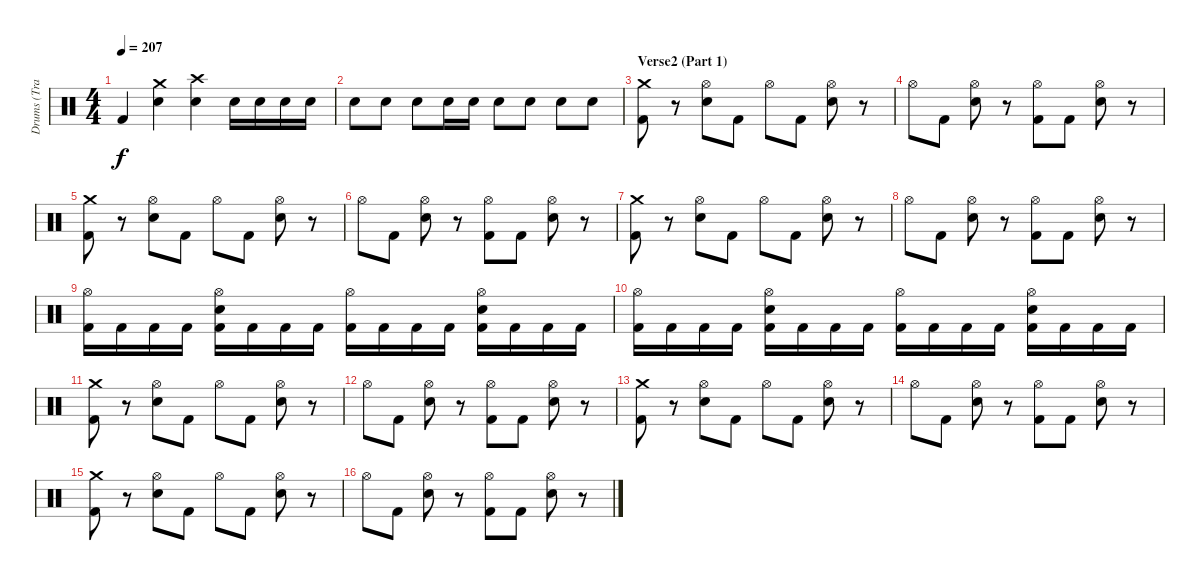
\track ("Drums (Travis)" "Drums (Tra") {instrument percussion}
\staff {score}
\articulation defaults
\ts (4 4)
\tempo 207
\clef neutral
\ks c "Kick (hit) 2".4{dy f}
("Crash medium (hit)" "Snare (hit) 2").4 ("Crash high (hit)" "Snare (hit) 2").4 "Snare (hit) 2".16 "Snare (hit) 2".16 "Snare (hit) 2".16 "Snare (hit) 2".16 |
"Snare (hit) 2".8 "Snare (hit) 2".8 "Snare (hit) 2".8 "Snare (hit) 2".16 "Snare (hit) 2".16 "Snare (hit) 2".8 "Snare (hit) 2".8 "Snare (hit) 2".8 "Snare (hit) 2".8 |
\section ("" "Verse2 (Part 1)")
("Crash medium (hit)" "Kick (hit) 2").8 r.8 ("Hi-Hat (open)" "Snare (hit) 2").8 "Kick (hit) 2".8 "Hi-Hat (open)".8 "Kick (hit) 2".8 ("Hi-Hat (open)" "Snare (hit) 2").8 r.8 |
"Hi-Hat (open)".8 "Kick (hit) 2".8 ("Hi-Hat (open)" "Snare (hit) 2").8 r.8 ("Hi-Hat (open)" "Kick (hit) 2").8 "Kick (hit) 2".8 ("Hi-Hat (open)" "Snare (hit) 2").8 r.8 |
("Crash medium (hit)" "Kick (hit) 2").8 r.8 ("Hi-Hat (open)" "Snare (hit) 2").8 "Kick (hit) 2".8 "Hi-Hat (open)".8 "Kick (hit) 2".8 ("Hi-Hat (open)" "Snare (hit) 2").8 r.8 |
"Hi-Hat (open)".8 "Kick (hit) 2".8 ("Hi-Hat (open)" "Snare (hit) 2").8 r.8 ("Hi-Hat (open)" "Kick (hit) 2").8 "Kick (hit) 2".8 ("Hi-Hat (open)" "Snare (hit) 2").8 r.8 |
("Crash medium (hit)" "Kick (hit) 2").8 r.8 ("Hi-Hat (open)" "Snare (hit) 2").8 "Kick (hit) 2".8 "Hi-Hat (open)".8 "Kick (hit) 2".8 ("Hi-Hat (open)" "Snare (hit) 2").8 r.8 |
"Hi-Hat (open)".8 "Kick (hit) 2".8 ("Hi-Hat (open)" "Snare (hit) 2").8 r.8 ("Hi-Hat (open)" "Kick (hit) 2").8 "Kick (hit) 2".8 ("Hi-Hat (open)" "Snare (hit) 2").8 r.8 |
("Hi-Hat (open)" "Kick (hit) 2").16 "Kick (hit) 2".16 "Kick (hit) 2".16 "Kick (hit) 2".16 ("Hi-Hat (open)" "Snare (hit) 2" "Kick (hit) 2").16 "Kick (hit) 2".16 "Kick (hit) 2".16 "Kick (hit) 2".16 ("Hi-Hat (open)" "Kick (hit) 2").16 "Kick (hit) 2".16 "Kick (hit) 2".16 "Kick (hit) 2".16 ("Hi-Hat (open)" "Snare (hit) 2" "Kick (hit) 2").16 "Kick (hit) 2".16 "Kick (hit) 2".16 "Kick (hit) 2".16 |
("Hi-Hat (open)" "Kick (hit) 2").16 "Kick (hit) 2".16 "Kick (hit) 2".16 "Kick (hit) 2".16 ("Hi-Hat (open)" "Snare (hit) 2" "Kick (hit) 2").16 "Kick (hit) 2".16 "Kick (hit) 2".16 "Kick (hit) 2".16 ("Hi-Hat (open)" "Kick (hit) 2").16 "Kick (hit) 2".16 "Kick (hit) 2".16 "Kick (hit) 2".16 ("Hi-Hat (open)" "Snare (hit) 2" "Kick (hit) 2").16 "Kick (hit) 2".16 "Kick (hit) 2".16 "Kick (hit) 2".16 |
("Crash medium (hit)" "Kick (hit) 2").8 r.8 ("Hi-Hat (open)" "Snare (hit) 2").8 "Kick (hit) 2".8 "Hi-Hat (open)".8 "Kick (hit) 2".8 ("Hi-Hat (open)" "Snare (hit) 2").8 r.8 |
"Hi-Hat (open)".8 "Kick (hit) 2".8 ("Hi-Hat (open)" "Snare (hit) 2").8 r.8 ("Hi-Hat (open)" "Kick (hit) 2").8 "Kick (hit) 2".8 ("Hi-Hat (open)" "Snare (hit) 2").8 r.8 |
("Crash medium (hit)" "Kick (hit) 2").8 r.8 ("Hi-Hat (open)" "Snare (hit) 2").8 "Kick (hit) 2".8 "Hi-Hat (open)".8 "Kick (hit) 2".8 ("Hi-Hat (open)" "Snare (hit) 2").8 r.8 |
"Hi-Hat (open)".8 "Kick (hit) 2".8 ("Hi-Hat (open)" "Snare (hit) 2").8 r.8 ("Hi-Hat (open)" "Kick (hit) 2").8 "Kick (hit) 2".8 ("Hi-Hat (open)" "Snare (hit) 2").8 r.8 |
("Crash medium (hit)" "Kick (hit) 2").8 r.8 ("Hi-Hat (open)" "Snare (hit) 2").8 "Kick (hit) 2".8 "Hi-Hat (open)".8 "Kick (hit) 2".8 ("Hi-Hat (open)" "Snare (hit) 2").8 r.8 |
"Hi-Hat (open)".8 "Kick (hit) 2".8 ("Hi-Hat (open)" "Snare (hit) 2").8 r.8 ("Hi-Hat (open)" "Kick (hit) 2").8 "Kick (hit) 2".8 ("Hi-Hat (open)" "Snare (hit) 2").8 r.8
